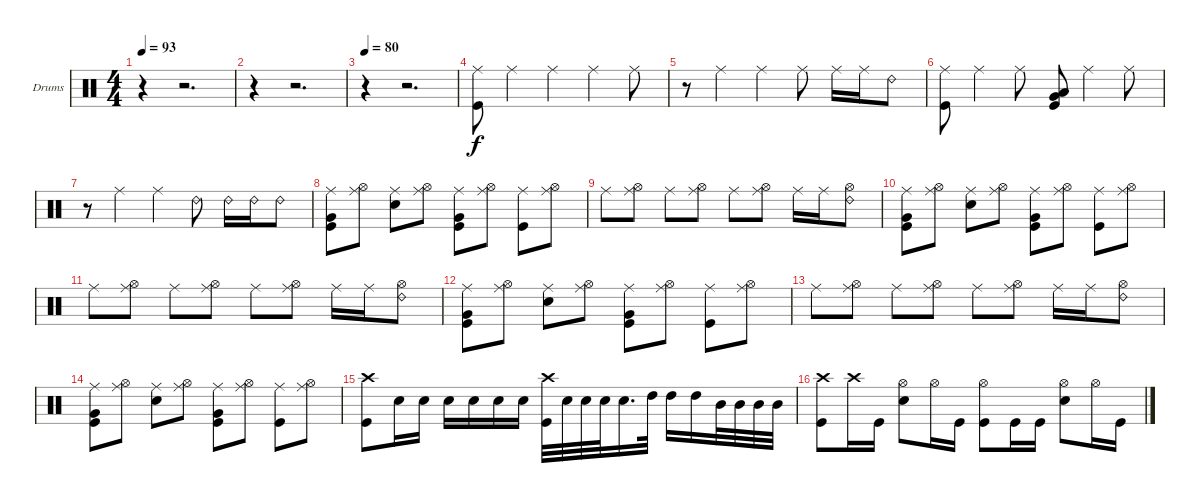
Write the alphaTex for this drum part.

\bracketExtendMode groupsimilarinstruments
\firstSystemTrackNameOrientation horizontal
\otherSystemsTrackNameOrientation horizontal
\track ("Drumkit" "Drums") {instrument percussion}
\staff {score}
\articulation defaults
\ts (4 4)
\tempo 93
\clef neutral
\ks c
r.4{dy f} r.2{d} |
r.4 r.2{d} |
\tempo 80
r.4 r.2{d} |
\tempo (80 hide)
("Ride (middle)" "Kick (hit)").8 "Ride (middle)".4 "Ride (middle)".4 "Ride (middle)".4 "Ride (middle)".8 |
r.8 "Ride (middle)".4 "Ride (middle)".4 "Ride (middle)".8 "Ride (middle)".16 "Ride (middle)".16 "Ride (bell) 2".8 |
("Ride (middle)" "Kick (hit)").8 "Ride (middle)".4 "Ride (middle)".8 ("Low Tom (hit)" "Very Low Tom (hit)" "Kick (hit)").8 "Ride (middle)".4 "Ride (middle)".8 |
r.8 "Ride (middle)".4 "Ride (middle)".4 "Ride (bell) 2".8 "Ride (bell) 2".16 "Ride (bell) 2".16 "Ride (bell) 2".8 |
("Ride (middle)" "Very Low Tom (hit)" "Kick (hit)").8 ("Ride (middle)" "Hi-Hat (open)").8 ("Ride (middle)" "Snare (hit) 2").8 ("Ride (middle)" "Hi-Hat (open)").8 ("Ride (middle)" "Very Low Tom (hit)" "Kick (hit)").8 ("Ride (middle)" "Hi-Hat (open)").8 ("Ride (middle)" "Kick (hit)").8 ("Ride (middle)" "Hi-Hat (open)").8 |
"Ride (middle)".8 ("Ride (middle)" "Hi-Hat (open)").8 "Ride (middle)".8 ("Ride (middle)" "Hi-Hat (open)").8 "Ride (middle)".8 ("Ride (middle)" "Hi-Hat (open)").8 "Ride (middle)".16 "Ride (middle)".16 ("Ride (bell) 2" "Hi-Hat (open)").8 |
("Ride (middle)" "Very Low Tom (hit)" "Kick (hit)").8 ("Ride (middle)" "Hi-Hat (open)").8 ("Ride (middle)" "Snare (hit) 2").8 ("Ride (middle)" "Hi-Hat (open)").8 ("Ride (middle)" "Very Low Tom (hit)" "Kick (hit)").8 ("Ride (middle)" "Hi-Hat (open)").8 ("Ride (middle)" "Kick (hit)").8 ("Ride (middle)" "Hi-Hat (open)").8 |
"Ride (middle)".8 ("Ride (middle)" "Hi-Hat (open)").8 "Ride (middle)".8 ("Ride (middle)" "Hi-Hat (open)").8 "Ride (middle)".8 ("Ride (middle)" "Hi-Hat (open)").8 "Ride (middle)".16 "Ride (middle)".16 ("Ride (bell) 2" "Hi-Hat (open)").8 |
("Ride (middle)" "Very Low Tom (hit)" "Kick (hit)").8 ("Ride (middle)" "Hi-Hat (open)").8 ("Ride (middle)" "Snare (hit) 2").8 ("Ride (middle)" "Hi-Hat (open)").8 ("Ride (middle)" "Very Low Tom (hit)" "Kick (hit)").8 ("Ride (middle)" "Hi-Hat (open)").8 ("Ride (middle)" "Kick (hit)").8 ("Ride (middle)" "Hi-Hat (open)").8 |
"Ride (middle)".8 ("Ride (middle)" "Hi-Hat (open)").8 "Ride (middle)".8 ("Ride (middle)" "Hi-Hat (open)").8 "Ride (middle)".8 ("Ride (middle)" "Hi-Hat (open)").8 "Ride (middle)".16 "Ride (middle)".16 ("Ride (bell) 2" "Hi-Hat (open)").8 |
("Ride (middle)" "Very Low Tom (hit)" "Kick (hit)").8 ("Ride (middle)" "Hi-Hat (open)").8 ("Ride (middle)" "Snare (hit) 2").8 ("Ride (middle)" "Hi-Hat (open)").8 ("Ride (middle)" "Very Low Tom (hit)" "Kick (hit)").8 ("Ride (middle)" "Hi-Hat (open)").8 ("Ride (middle)" "Kick (hit)").8 ("Ride (middle)" "Hi-Hat (open)").8 |
("Crash high (hit)" "Kick (hit)").8 "Snare (hit) 2".16 "Snare (hit) 2".16 "Snare (hit) 2".16 "Snare (hit) 2".16 "Snare (hit) 2".16 "Snare (hit) 2".16 ("Crash high (hit)" "Kick (hit)").32 "Snare (hit) 2".32 "Snare (hit) 2".32 "Snare (hit) 2".32 "Snare (hit) 2".16{d} "High Tom (hit)".32 "High Tom (hit)".16 "High Tom (hit)".16 "Mid Tom (hit)".32 "Mid Tom (hit)".32 "Mid Tom (hit)".32 "Mid Tom (hit)".32 |
("Crash high (hit)" "Kick (hit)").8 "Crash high (hit)".16 "Kick (hit)".16 ("Hi-Hat (open)" "Snare (hit) 2").8 "Hi-Hat (open)".16 "Kick (hit)".16 ("Hi-Hat (open)" "Kick (hit)").8 "Kick (hit)".16 "Kick (hit)".16 ("Hi-Hat (open)" "Snare (hit) 2").8 "Hi-Hat (open)".16 "Kick (hit)".16
